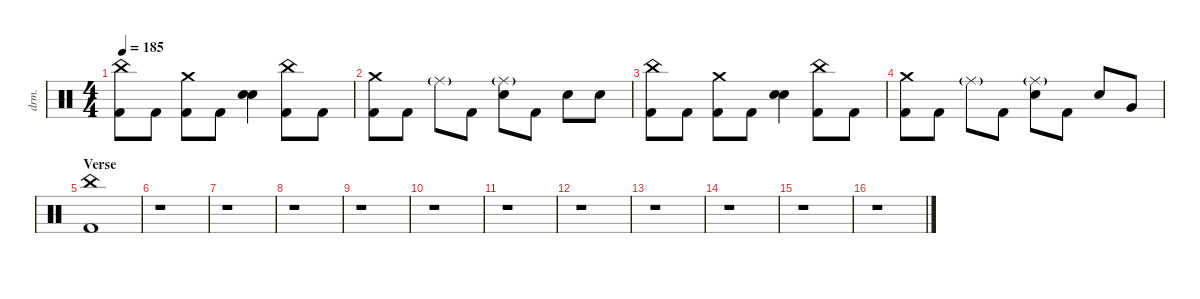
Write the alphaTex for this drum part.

\defaultSystemsLayout 4
\hideDynamics
\bracketExtendMode nobrackets
\track ("Drums - Šimon" "drm.") {instrument percussion}
\staff {score}
\articulation defaults
\ts (4 4)
\tempo 185
\clef neutral
\ks c
("China (hit)" "Kick (hit) 2").8{dy ff} "Kick (hit) 2".8 ("Kick (hit) 2" "Crash medium (hit)").8 "Kick (hit) 2".8 ("Snare (hit) 2" "Snare (hit) 2").4 ("Kick (hit) 2" "China (hit)").8 "Kick (hit) 2".8 |
("Kick (hit) 2" "Crash medium (hit)").8 "Kick (hit) 2".8 "Ride (middle)"{g}.8 "Kick (hit) 2".8 ("Snare (hit) 2" "Ride (middle)"{g}).8 "Kick (hit) 2".8 "Snare (hit) 2".8 "Snare (hit) 2".8 |
("China (hit)" "Kick (hit) 2").8 "Kick (hit) 2".8 ("Kick (hit) 2" "Crash medium (hit)").8 "Kick (hit) 2".8 ("Snare (hit) 2" "Snare (hit) 2").4 ("Kick (hit) 2" "China (hit)").8 "Kick (hit) 2".8 |
("Kick (hit) 2" "Crash medium (hit)").8 "Kick (hit) 2".8 "Ride (middle)"{g}.8 "Kick (hit) 2".8 ("Snare (hit) 2" "Ride (middle)"{g}).8 "Kick (hit) 2".8 "Snare (hit) 2".8 "Very Low Tom (hit)".8 |
\section ("" "Verse")
("Kick (hit) 2" "China (hit)").1 |
r.1 |
r.1 |
r.1 |
r.1 |
r.1 |
r.1 |
r.1 |
r.1 |
r.1 |
r.1 |
r.1
